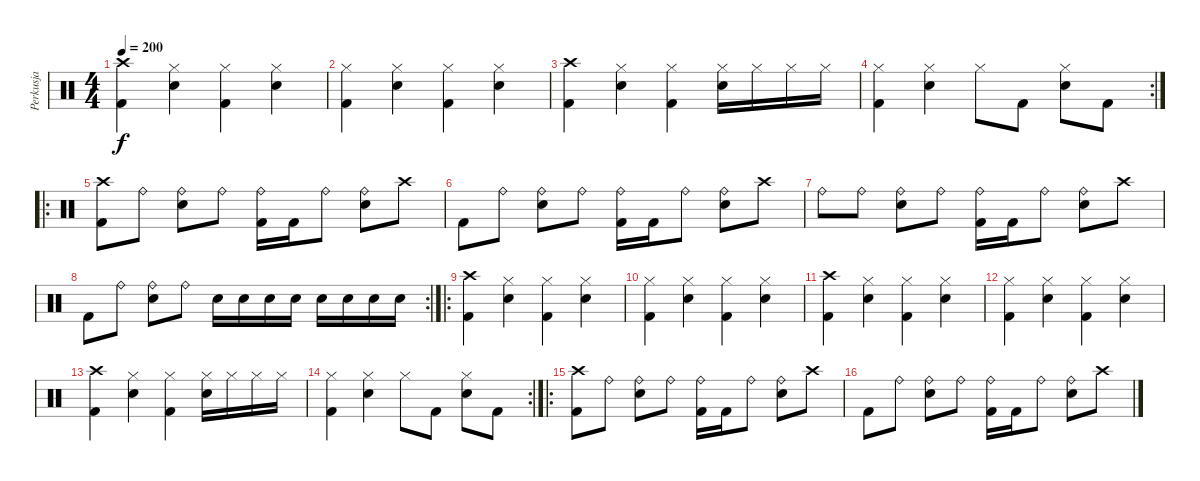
\track ("Perkusja" "Perkusja") {instrument percussion}
\staff {score}
\articulation defaults
\ts (4 4)
\tempo 200
\clef neutral
\ks c
("Crash high (hit)" "Kick (hit) 2").4{dy f} ("Hi-Hat (closed)" "Snare (hit) 2").4 ("Hi-Hat (closed)" "Kick (hit) 2").4 ("Hi-Hat (closed)" "Snare (hit) 2").4 |
("Hi-Hat (closed)" "Kick (hit) 2").4 ("Hi-Hat (closed)" "Snare (hit) 2").4 ("Hi-Hat (closed)" "Kick (hit) 2").4 ("Hi-Hat (closed)" "Snare (hit) 2").4 |
("Crash high (hit)" "Kick (hit) 2").4 ("Hi-Hat (closed)" "Snare (hit) 2").4 ("Hi-Hat (closed)" "Kick (hit) 2").4 ("Hi-Hat (closed)" "Snare (hit) 2").16 "Hi-Hat (closed)".16 "Hi-Hat (closed)".16 "Hi-Hat (closed)".16 |
\rc 2
("Hi-Hat (closed)" "Kick (hit) 2").4 ("Hi-Hat (closed)" "Snare (hit) 2").4 "Hi-Hat (closed)".8 "Kick (hit) 2".8 ("Hi-Hat (closed)" "Snare (hit) 2").8 "Kick (hit) 2".8 |
\ro
("Crash high (hit)" "Kick (hit) 2").8 "Ride (bell)".8 ("Ride (bell)" "Snare (hit) 2").8 "Ride (bell)".8 ("Ride (bell)" "Kick (hit) 2").16 "Kick (hit) 2".16 "Ride (bell)".8 ("Ride (bell)" "Snare (hit) 2").8 "Crash high (hit)".8 |
"Kick (hit) 2".8 "Ride (bell)".8 ("Ride (bell)" "Snare (hit) 2").8 "Ride (bell)".8 ("Ride (bell)" "Kick (hit) 2").16 "Kick (hit) 2".16 "Ride (bell)".8 ("Ride (bell)" "Snare (hit) 2").8 "Crash high (hit)".8 |
"Ride (bell)".8 "Ride (bell)".8 ("Ride (bell)" "Snare (hit) 2").8 "Ride (bell)".8 ("Ride (bell)" "Kick (hit) 2").16 "Kick (hit) 2".16 "Ride (bell)".8 ("Ride (bell)" "Snare (hit) 2").8 "Crash high (hit)".8 |
\rc 2 "Kick (hit) 2".8 "Ride (bell)".8
("Ride (bell)" "Snare (hit) 2").8 "Ride (bell)".8 "Snare (hit) 2".16 "Snare (hit) 2".16 "Snare (hit) 2".16 "Snare (hit) 2".16 "Snare (hit) 2".16 "Snare (hit) 2".16 "Snare (hit) 2".16 "Snare (hit) 2".16 |
\ro
("Crash high (hit)" "Kick (hit) 2").4 ("Hi-Hat (closed)" "Snare (hit) 2").4 ("Hi-Hat (closed)" "Kick (hit) 2").4 ("Hi-Hat (closed)" "Snare (hit) 2").4 |
("Hi-Hat (closed)" "Kick (hit) 2").4 ("Hi-Hat (closed)" "Snare (hit) 2").4 ("Hi-Hat (closed)" "Kick (hit) 2").4 ("Hi-Hat (closed)" "Snare (hit) 2").4 |
("Crash high (hit)" "Kick (hit) 2").4 ("Hi-Hat (closed)" "Snare (hit) 2").4 ("Hi-Hat (closed)" "Kick (hit) 2").4 ("Hi-Hat (closed)" "Snare (hit) 2").4 |
("Hi-Hat (closed)" "Kick (hit) 2").4 ("Hi-Hat (closed)" "Snare (hit) 2").4 ("Hi-Hat (closed)" "Kick (hit) 2").4 ("Hi-Hat (closed)" "Snare (hit) 2").4 |
("Crash high (hit)" "Kick (hit) 2").4 ("Hi-Hat (closed)" "Snare (hit) 2").4 ("Hi-Hat (closed)" "Kick (hit) 2").4 ("Hi-Hat (closed)" "Snare (hit) 2").16 "Hi-Hat (closed)".16 "Hi-Hat (closed)".16 "Hi-Hat (closed)".16 |
\rc 2
("Hi-Hat (closed)" "Kick (hit) 2").4 ("Hi-Hat (closed)" "Snare (hit) 2").4 "Hi-Hat (closed)".8 "Kick (hit) 2".8 ("Hi-Hat (closed)" "Snare (hit) 2").8 "Kick (hit) 2".8 |
\ro
("Crash high (hit)" "Kick (hit) 2").8 "Ride (bell)".8 ("Ride (bell)" "Snare (hit) 2").8 "Ride (bell)".8 ("Ride (bell)" "Kick (hit) 2").16 "Kick (hit) 2".16 "Ride (bell)".8 ("Ride (bell)" "Snare (hit) 2").8 "Crash high (hit)".8 |
"Kick (hit) 2".8 "Ride (bell)".8 ("Ride (bell)" "Snare (hit) 2").8 "Ride (bell)".8 ("Ride (bell)" "Kick (hit) 2").16 "Kick (hit) 2".16 "Ride (bell)".8 ("Ride (bell)" "Snare (hit) 2").8 "Crash high (hit)".8
